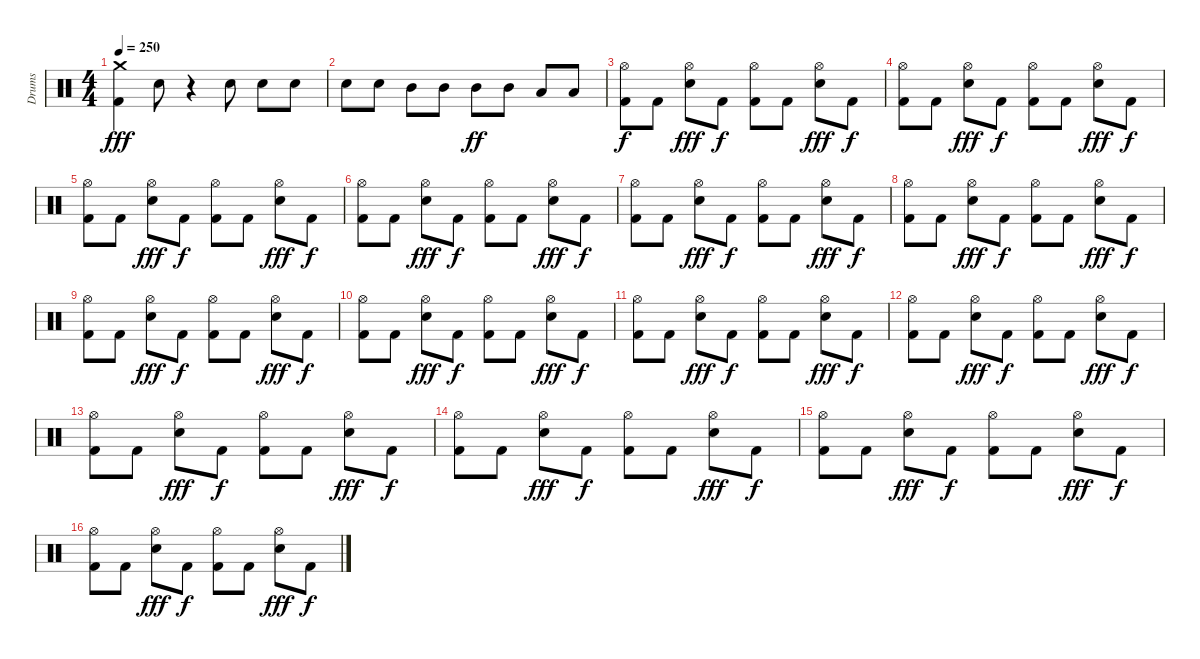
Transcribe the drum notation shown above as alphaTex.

\track ("Drums" "Drums") {instrument percussion}
\staff {score}
\articulation defaults
\ts (4 4)
\tempo 250
\clef neutral
\ks c
("Crash medium (hit)" "Kick (hit) 2").4{dy fff} "Snare (hit) 2".8 r.4 "Snare (hit) 2".8 "Snare (hit) 2".8 "Snare (hit) 2".8 |
"Snare (hit) 2".8 "Snare (hit) 2".8 "Mid Tom (hit)".8 "Mid Tom (hit)".8 "Mid Tom (hit)".8{dy ff} "Mid Tom (hit)".8 "Low Tom (hit)".8 "Low Tom (hit)".8 |
("Kick (hit) 2" "Hi-Hat (open)").8{dy f} "Kick (hit) 2".8 ("Hi-Hat (open)" "Snare (hit) 2").8{dy fff} "Kick (hit) 2".8{dy f} ("Hi-Hat (open)" "Kick (hit) 2").8 "Kick (hit) 2".8 ("Hi-Hat (open)" "Snare (hit) 2").8{dy fff} "Kick (hit) 2".8{dy f} |
("Kick (hit) 2" "Hi-Hat (open)").8 "Kick (hit) 2".8 ("Hi-Hat (open)" "Snare (hit) 2").8{dy fff} "Kick (hit) 2".8{dy f} ("Hi-Hat (open)" "Kick (hit) 2").8 "Kick (hit) 2".8 ("Hi-Hat (open)" "Snare (hit) 2").8{dy fff} "Kick (hit) 2".8{dy f} |
("Kick (hit) 2" "Hi-Hat (open)").8 "Kick (hit) 2".8 ("Hi-Hat (open)" "Snare (hit) 2").8{dy fff} "Kick (hit) 2".8{dy f} ("Hi-Hat (open)" "Kick (hit) 2").8 "Kick (hit) 2".8 ("Hi-Hat (open)" "Snare (hit) 2").8{dy fff} "Kick (hit) 2".8{dy f} |
("Kick (hit) 2" "Hi-Hat (open)").8 "Kick (hit) 2".8 ("Hi-Hat (open)" "Snare (hit) 2").8{dy fff} "Kick (hit) 2".8{dy f} ("Hi-Hat (open)" "Kick (hit) 2").8 "Kick (hit) 2".8 ("Hi-Hat (open)" "Snare (hit) 2").8{dy fff} "Kick (hit) 2".8{dy f} |
("Kick (hit) 2" "Hi-Hat (open)").8 "Kick (hit) 2".8 ("Hi-Hat (open)" "Snare (hit) 2").8{dy fff} "Kick (hit) 2".8{dy f} ("Hi-Hat (open)" "Kick (hit) 2").8 "Kick (hit) 2".8 ("Hi-Hat (open)" "Snare (hit) 2").8{dy fff} "Kick (hit) 2".8{dy f} |
("Kick (hit) 2" "Hi-Hat (open)").8 "Kick (hit) 2".8 ("Hi-Hat (open)" "Snare (hit) 2").8{dy fff} "Kick (hit) 2".8{dy f} ("Hi-Hat (open)" "Kick (hit) 2").8 "Kick (hit) 2".8 ("Hi-Hat (open)" "Snare (hit) 2").8{dy fff} "Kick (hit) 2".8{dy f} |
("Kick (hit) 2" "Hi-Hat (open)").8 "Kick (hit) 2".8 ("Hi-Hat (open)" "Snare (hit) 2").8{dy fff} "Kick (hit) 2".8{dy f} ("Hi-Hat (open)" "Kick (hit) 2").8 "Kick (hit) 2".8 ("Hi-Hat (open)" "Snare (hit) 2").8{dy fff} "Kick (hit) 2".8{dy f} |
("Kick (hit) 2" "Hi-Hat (open)").8 "Kick (hit) 2".8 ("Hi-Hat (open)" "Snare (hit) 2").8{dy fff} "Kick (hit) 2".8{dy f} ("Hi-Hat (open)" "Kick (hit) 2").8 "Kick (hit) 2".8 ("Hi-Hat (open)" "Snare (hit) 2").8{dy fff} "Kick (hit) 2".8{dy f} |
("Kick (hit) 2" "Hi-Hat (open)").8 "Kick (hit) 2".8 ("Hi-Hat (open)" "Snare (hit) 2").8{dy fff} "Kick (hit) 2".8{dy f} ("Hi-Hat (open)" "Kick (hit) 2").8 "Kick (hit) 2".8 ("Hi-Hat (open)" "Snare (hit) 2").8{dy fff} "Kick (hit) 2".8{dy f} |
("Kick (hit) 2" "Hi-Hat (open)").8 "Kick (hit) 2".8 ("Hi-Hat (open)" "Snare (hit) 2").8{dy fff} "Kick (hit) 2".8{dy f} ("Hi-Hat (open)" "Kick (hit) 2").8 "Kick (hit) 2".8 ("Hi-Hat (open)" "Snare (hit) 2").8{dy fff} "Kick (hit) 2".8{dy f} |
("Kick (hit) 2" "Hi-Hat (open)").8 "Kick (hit) 2".8 ("Hi-Hat (open)" "Snare (hit) 2").8{dy fff} "Kick (hit) 2".8{dy f} ("Hi-Hat (open)" "Kick (hit) 2").8 "Kick (hit) 2".8 ("Hi-Hat (open)" "Snare (hit) 2").8{dy fff} "Kick (hit) 2".8{dy f} |
("Kick (hit) 2" "Hi-Hat (open)").8 "Kick (hit) 2".8 ("Hi-Hat (open)" "Snare (hit) 2").8{dy fff} "Kick (hit) 2".8{dy f} ("Hi-Hat (open)" "Kick (hit) 2").8 "Kick (hit) 2".8 ("Hi-Hat (open)" "Snare (hit) 2").8{dy fff} "Kick (hit) 2".8{dy f} |
("Kick (hit) 2" "Hi-Hat (open)").8 "Kick (hit) 2".8 ("Hi-Hat (open)" "Snare (hit) 2").8{dy fff} "Kick (hit) 2".8{dy f} ("Hi-Hat (open)" "Kick (hit) 2").8 "Kick (hit) 2".8 ("Hi-Hat (open)" "Snare (hit) 2").8{dy fff} "Kick (hit) 2".8{dy f} |
("Kick (hit) 2" "Hi-Hat (open)").8 "Kick (hit) 2".8 ("Hi-Hat (open)" "Snare (hit) 2").8{dy fff} "Kick (hit) 2".8{dy f} ("Hi-Hat (open)" "Kick (hit) 2").8 "Kick (hit) 2".8 ("Hi-Hat (open)" "Snare (hit) 2").8{dy fff} "Kick (hit) 2".8{dy f}
